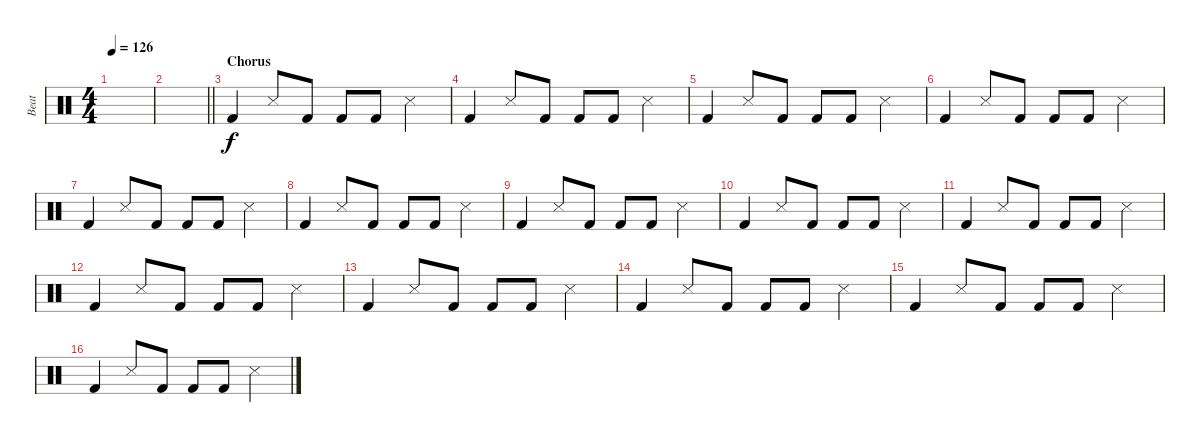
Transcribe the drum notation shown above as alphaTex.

\track ("Beat" "Beat") {instrument percussion}
\staff {score}
\articulation defaults
\ts (4 4)
\tempo 126
\clef neutral
\ks c
|
\barLineRight lightlight
|
\section ("" "Chorus")
"Kick (hit) 2".4 "Snare (side stick) 3".8 "Kick (hit) 2".8 "Kick (hit) 2".8 "Kick (hit) 2".8 "Snare (side stick) 3".4 |
"Kick (hit) 2".4 "Snare (side stick) 3".8 "Kick (hit) 2".8 "Kick (hit) 2".8 "Kick (hit) 2".8 "Snare (side stick) 3".4 |
"Kick (hit) 2".4 "Snare (side stick) 3".8 "Kick (hit) 2".8 "Kick (hit) 2".8 "Kick (hit) 2".8 "Snare (side stick) 3".4 |
"Kick (hit) 2".4 "Snare (side stick) 3".8 "Kick (hit) 2".8 "Kick (hit) 2".8 "Kick (hit) 2".8 "Snare (side stick) 3".4 |
"Kick (hit) 2".4 "Snare (side stick) 3".8 "Kick (hit) 2".8 "Kick (hit) 2".8 "Kick (hit) 2".8 "Snare (side stick) 3".4 |
"Kick (hit) 2".4 "Snare (side stick) 3".8 "Kick (hit) 2".8 "Kick (hit) 2".8 "Kick (hit) 2".8 "Snare (side stick) 3".4 |
"Kick (hit) 2".4 "Snare (side stick) 3".8 "Kick (hit) 2".8 "Kick (hit) 2".8 "Kick (hit) 2".8 "Snare (side stick) 3".4 |
"Kick (hit) 2".4 "Snare (side stick) 3".8 "Kick (hit) 2".8 "Kick (hit) 2".8 "Kick (hit) 2".8 "Snare (side stick) 3".4 |
"Kick (hit) 2".4 "Snare (side stick) 3".8 "Kick (hit) 2".8 "Kick (hit) 2".8 "Kick (hit) 2".8 "Snare (side stick) 3".4 |
"Kick (hit) 2".4 "Snare (side stick) 3".8 "Kick (hit) 2".8 "Kick (hit) 2".8 "Kick (hit) 2".8 "Snare (side stick) 3".4 |
"Kick (hit) 2".4 "Snare (side stick) 3".8 "Kick (hit) 2".8 "Kick (hit) 2".8 "Kick (hit) 2".8 "Snare (side stick) 3".4 |
"Kick (hit) 2".4 "Snare (side stick) 3".8 "Kick (hit) 2".8 "Kick (hit) 2".8 "Kick (hit) 2".8 "Snare (side stick) 3".4 |
"Kick (hit) 2".4 "Snare (side stick) 3".8 "Kick (hit) 2".8 "Kick (hit) 2".8 "Kick (hit) 2".8 "Snare (side stick) 3".4 |
"Kick (hit) 2".4 "Snare (side stick) 3".8 "Kick (hit) 2".8 "Kick (hit) 2".8 "Kick (hit) 2".8 "Snare (side stick) 3".4
